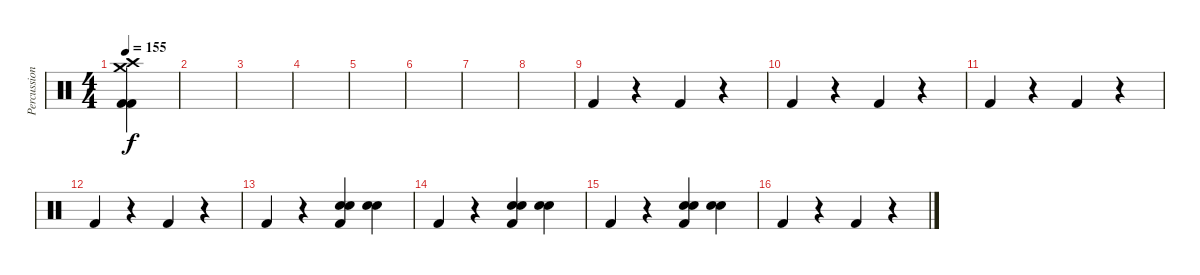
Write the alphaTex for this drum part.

\track ("Percussion" "Percussion") {instrument percussion}
\staff {score}
\articulation defaults
\ts (4 4)
\tempo 155
\clef neutral
\ks c
("Crash high (hit)" "Crash medium (hit)" "Kick (hit) 2" "Kick (hit) 2").4{dy f} |
|
|
|
|
|
|
|
"Kick (hit) 2".4 r.4 "Kick (hit) 2".4 r.4 |
"Kick (hit) 2".4 r.4 "Kick (hit) 2".4 r.4 |
"Kick (hit) 2".4 r.4 "Kick (hit) 2".4 r.4 |
"Kick (hit) 2".4 r.4 "Kick (hit) 2".4 r.4 |
"Kick (hit) 2".4 r.4 ("Hand Clap (hit)" "Snare (hit) 2" "Kick (hit) 2").4 ("Hand Clap (hit)" "Snare (hit) 2").4 |
"Kick (hit) 2".4 r.4 ("Hand Clap (hit)" "Snare (hit) 2" "Kick (hit) 2").4 ("Hand Clap (hit)" "Snare (hit) 2").4 |
"Kick (hit) 2".4 r.4 ("Hand Clap (hit)" "Snare (hit) 2" "Kick (hit) 2").4 ("Hand Clap (hit)" "Snare (hit) 2").4 |
"Kick (hit) 2".4 r.4 "Kick (hit) 2".4 r.4
